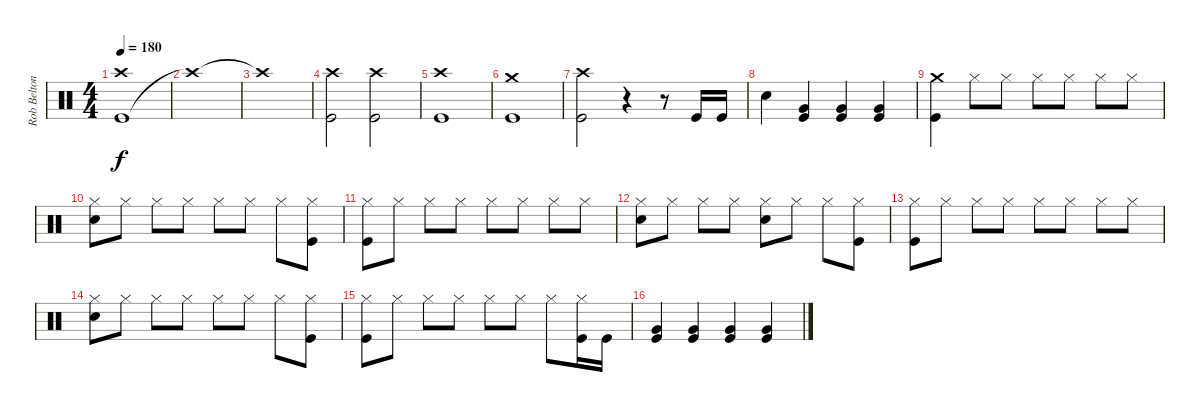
\track ("Rob Belton" "Rob Belton") {instrument percussion}
\staff {score}
\articulation defaults
\ts (4 4)
\tempo 180
\clef neutral
\ks c
("Kick (hit)" "Crash high (hit)").1{dy f} |
"Crash high (hit)"{t}.1 |
"Crash high (hit)"{t}.1 |
("Kick (hit)" "Crash high (hit)").2 ("Kick (hit)" "Crash high (hit)").2 |
("Kick (hit)" "Crash high (hit)").1 |
("Kick (hit)" "Crash medium (hit)").1 |
("Kick (hit)" "Crash high (hit)").2 r.4 r.8 "Kick (hit)".16 "Kick (hit)".16 |
"Snare (hit) 2".4 ("Very Low Tom (hit)" "Kick (hit)").4 ("Very Low Tom (hit)" "Kick (hit)").4 ("Very Low Tom (hit)" "Kick (hit)").4 |
("Kick (hit)" "Crash medium (hit)").4 "Hi-Hat (closed)".8 "Hi-Hat (closed)".8 "Hi-Hat (closed)".8 "Hi-Hat (closed)".8 "Hi-Hat (closed)".8 "Hi-Hat (closed)".8 |
("Snare (hit) 2" "Hi-Hat (closed)").8 "Hi-Hat (closed)".8 "Hi-Hat (closed)".8 "Hi-Hat (closed)".8 "Hi-Hat (closed)".8 "Hi-Hat (closed)".8 "Hi-Hat (closed)".8 ("Hi-Hat (closed)" "Kick (hit)").8 |
("Kick (hit)" "Hi-Hat (closed)").8 "Hi-Hat (closed)".8 "Hi-Hat (closed)".8 "Hi-Hat (closed)".8 "Hi-Hat (closed)".8 "Hi-Hat (closed)".8 "Hi-Hat (closed)".8 "Hi-Hat (closed)".8 |
("Hi-Hat (closed)" "Snare (hit) 2").8 "Hi-Hat (closed)".8 "Hi-Hat (closed)".8 "Hi-Hat (closed)".8 ("Hi-Hat (closed)" "Snare (hit) 2").8 "Hi-Hat (closed)".8 "Hi-Hat (closed)".8 ("Hi-Hat (closed)" "Kick (hit)").8 |
("Kick (hit)" "Hi-Hat (closed)").8 "Hi-Hat (closed)".8 "Hi-Hat (closed)".8 "Hi-Hat (closed)".8 "Hi-Hat (closed)".8 "Hi-Hat (closed)".8 "Hi-Hat (closed)".8 "Hi-Hat (closed)".8 |
("Snare (hit) 2" "Hi-Hat (closed)").8 "Hi-Hat (closed)".8 "Hi-Hat (closed)".8 "Hi-Hat (closed)".8 "Hi-Hat (closed)".8 "Hi-Hat (closed)".8 "Hi-Hat (closed)".8 ("Hi-Hat (closed)" "Kick (hit)").8 |
("Kick (hit)" "Hi-Hat (closed)").8 "Hi-Hat (closed)".8 "Hi-Hat (closed)".8 "Hi-Hat (closed)".8 "Hi-Hat (closed)".8 "Hi-Hat (closed)".8 "Hi-Hat (closed)".8 ("Hi-Hat (closed)" "Kick (hit)").16 "Kick (hit)".16 |
("Very Low Tom (hit)" "Kick (hit)").4 ("Very Low Tom (hit)" "Kick (hit)").4 ("Very Low Tom (hit)" "Kick (hit)").4 ("Very Low Tom (hit)" "Kick (hit)").4
